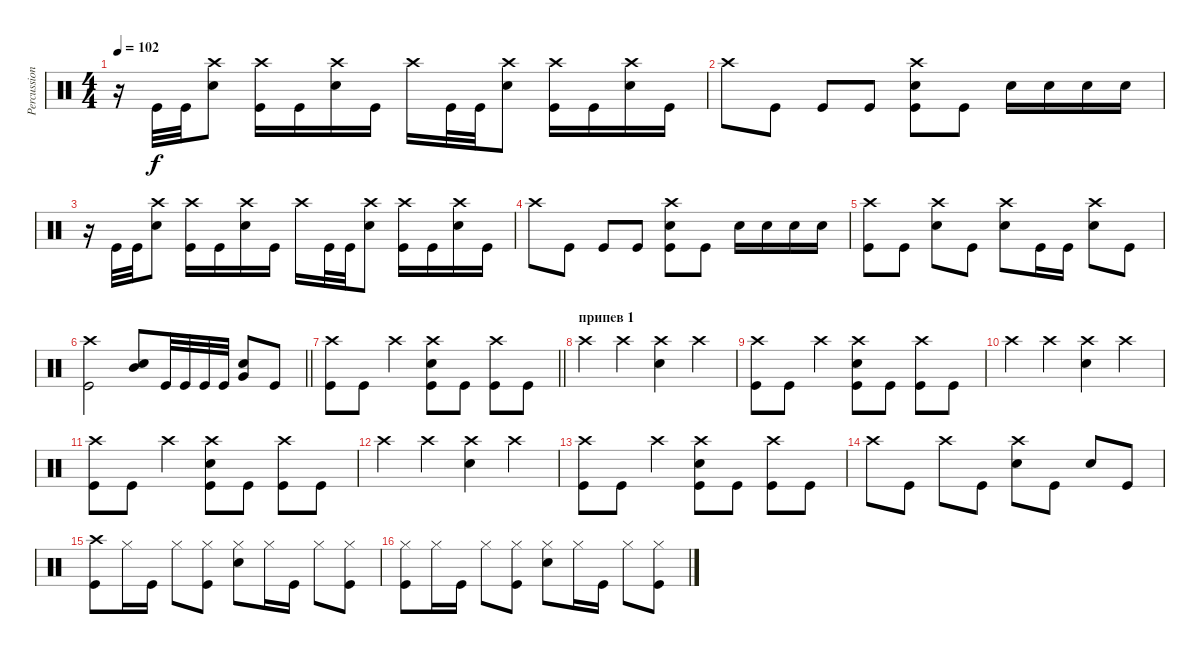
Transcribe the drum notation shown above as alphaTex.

\track ("Percussion" "Percussion") {solo instrument percussion}
\staff {score}
\articulation defaults
\ts (4 4)
\tempo 102
\clef neutral
\ks c
r.16{dy f} "Kick (hit)".32 "Kick (hit)".32 ("Snare (hit) 2" "Crash high (hit)").8 ("Kick (hit)" "Crash high (hit)").16 "Kick (hit)".16 ("Snare (hit) 2" "Crash high (hit)").16 "Kick (hit)".16 "Crash high (hit)".16 "Kick (hit)".32 "Kick (hit)".32 ("Snare (hit) 2" "Crash high (hit)").8 ("Kick (hit)" "Crash high (hit)").16 "Kick (hit)".16 ("Snare (hit) 2" "Crash high (hit)").16 "Kick (hit)".16 |
"Crash high (hit)".8 "Kick (hit)".8 "Kick (hit)".8 "Kick (hit)".8 ("Kick (hit)" "Crash high (hit)" "Snare (hit) 2").8 "Kick (hit)".8 "Snare (hit) 2".16 "Snare (hit) 2".16 "Snare (hit) 2".16 "Snare (hit) 2".16 |
r.16 "Kick (hit)".32 "Kick (hit)".32 ("Snare (hit) 2" "Crash high (hit)").8 ("Kick (hit)" "Crash high (hit)").16 "Kick (hit)".16 ("Snare (hit) 2" "Crash high (hit)").16 "Kick (hit)".16 "Crash high (hit)".16 "Kick (hit)".32 "Kick (hit)".32 ("Snare (hit) 2" "Crash high (hit)").8 ("Kick (hit)" "Crash high (hit)").16 "Kick (hit)".16 ("Snare (hit) 2" "Crash high (hit)").16 "Kick (hit)".16 |
"Crash high (hit)".8 "Kick (hit)".8 "Kick (hit)".8 "Kick (hit)".8 ("Kick (hit)" "Crash high (hit)" "Snare (hit) 2").8 "Kick (hit)".8 "Snare (hit) 2".16 "Snare (hit) 2".16 "Snare (hit) 2".16 "Snare (hit) 2".16 |
("Kick (hit)" "Crash high (hit)").8 "Kick (hit)".8 ("Snare (hit) 2" "Crash high (hit)").8 "Kick (hit)".8 ("Snare (hit) 2" "Crash high (hit)").8 "Kick (hit)".16 "Kick (hit)".16 ("Snare (hit) 2" "Crash high (hit)").8 "Kick (hit)".8 |
\barLineRight lightlight
("Kick (hit)" "Crash high (hit)").2 ("Mid Tom (hit)" "Snare (hit) 2").8 "Kick (hit)".32 "Kick (hit)".32 "Kick (hit)".32 "Kick (hit)".32 ("Very Low Tom (hit)" "Snare (hit) 2").8 "Kick (hit)".8 |
\barLineRight lightlight
("Kick (hit)" "Crash high (hit)").8 "Kick (hit)".8 "Crash high (hit)".4 ("Kick (hit)" "Crash high (hit)" "Snare (hit) 2").8 "Kick (hit)".8 ("Kick (hit)" "Crash high (hit)").8 "Kick (hit)".8 |
\section ("" "припев 1")
"Crash high (hit)".4 "Crash high (hit)".4 ("Crash high (hit)" "Snare (hit) 2").4 "Crash high (hit)".4 |
("Kick (hit)" "Crash high (hit)").8 "Kick (hit)".8 "Crash high (hit)".4 ("Kick (hit)" "Crash high (hit)" "Snare (hit) 2").8 "Kick (hit)".8 ("Kick (hit)" "Crash high (hit)").8 "Kick (hit)".8 |
"Crash high (hit)".4 "Crash high (hit)".4 ("Crash high (hit)" "Snare (hit) 2").4 "Crash high (hit)".4 |
("Kick (hit)" "Crash high (hit)").8 "Kick (hit)".8 "Crash high (hit)".4 ("Kick (hit)" "Crash high (hit)" "Snare (hit) 2").8 "Kick (hit)".8 ("Kick (hit)" "Crash high (hit)").8 "Kick (hit)".8 |
"Crash high (hit)".4 "Crash high (hit)".4 ("Crash high (hit)" "Snare (hit) 2").4 "Crash high (hit)".4 |
("Kick (hit)" "Crash high (hit)").8 "Kick (hit)".8 "Crash high (hit)".4 ("Kick (hit)" "Crash high (hit)" "Snare (hit) 2").8 "Kick (hit)".8 ("Kick (hit)" "Crash high (hit)").8 "Kick (hit)".8 |
"Crash high (hit)".8 "Kick (hit)".8 "Crash high (hit)".8 "Kick (hit)".8 ("Crash high (hit)" "Snare (hit) 2").8 "Kick (hit)".8 "Snare (hit) 2".8 "Kick (hit)".8 |
("Kick (hit)" "Crash high (hit)").8 "Hi-Hat (closed)".16 "Kick (hit)".16 "Hi-Hat (closed)".8 ("Hi-Hat (closed)" "Kick (hit)").8 ("Hi-Hat (closed)" "Snare (hit) 2").8 "Hi-Hat (closed)".16 "Kick (hit)".16 "Hi-Hat (closed)".8 ("Kick (hit)" "Hi-Hat (closed)").8 |
("Kick (hit)" "Hi-Hat (closed)").8 "Hi-Hat (closed)".16 "Kick (hit)".16 "Hi-Hat (closed)".8 ("Hi-Hat (closed)" "Kick (hit)").8 ("Hi-Hat (closed)" "Snare (hit) 2").8 "Hi-Hat (closed)".16 "Kick (hit)".16 "Hi-Hat (closed)".8 ("Kick (hit)" "Hi-Hat (closed)").8
